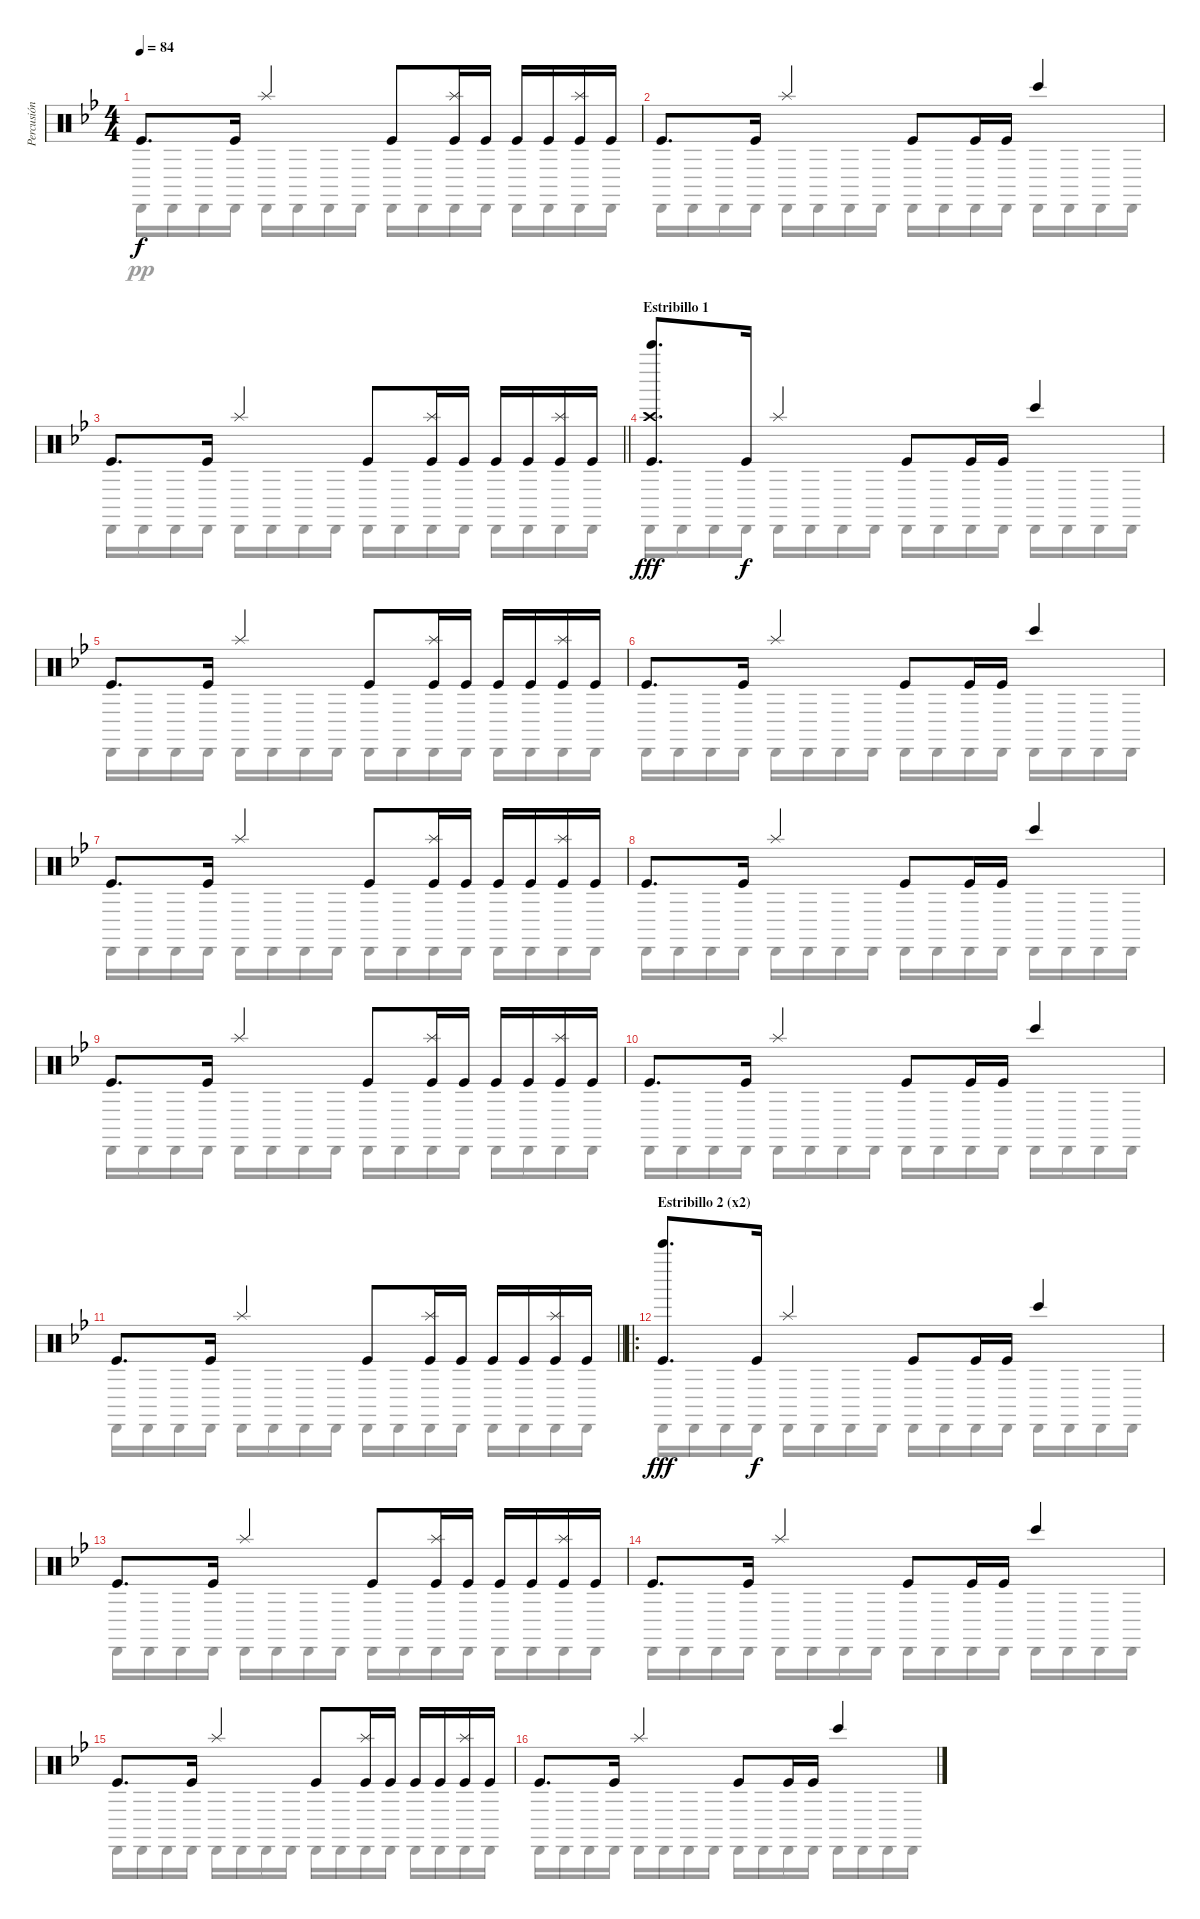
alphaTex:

\track ("Percusión" "Percusión") {instrument percussion}
\staff {score}
\articulation defaults
\voice
\ts (4 4)
\tempo 84
\clef neutral
\ks bb "Kick (hit)".8{d dy f} "Kick (hit)".16 "Splash (hit)".4 "Kick (hit)".8
("Splash (hit)" "Kick (hit)").16 "Kick (hit)".16 "Kick (hit)".16 "Kick (hit)".16 ("Splash (hit)" "Kick (hit)").16 "Kick (hit)".16 |
"Kick (hit)".8{d} "Kick (hit)".16 "Splash (hit)".4 "Kick (hit)".8 "Kick (hit)".16 "Kick (hit)".16 "Bongo High (hit)".4 |
\barLineRight lightlight "Kick (hit)".8{d} "Kick (hit)".16 "Splash (hit)".4 "Kick (hit)".8
("Splash (hit)" "Kick (hit)").16 "Kick (hit)".16 "Kick (hit)".16 "Kick (hit)".16 ("Splash (hit)" "Kick (hit)").16 "Kick (hit)".16 |
\section ("" "Estribillo 1")
("Bell Tree (hit)" "Crash high (hit)" "Kick (hit)").8{d dy fff} "Kick (hit)".16{dy f} "Splash (hit)".4 "Kick (hit)".8 "Kick (hit)".16 "Kick (hit)".16 "Bongo High (hit)".4 |
"Kick (hit)".8{d} "Kick (hit)".16 "Splash (hit)".4 "Kick (hit)".8 ("Splash (hit)" "Kick (hit)").16 "Kick (hit)".16 "Kick (hit)".16 "Kick (hit)".16 ("Splash (hit)" "Kick (hit)").16 "Kick (hit)".16 |
"Kick (hit)".8{d} "Kick (hit)".16 "Splash (hit)".4 "Kick (hit)".8 "Kick (hit)".16 "Kick (hit)".16 "Bongo High (hit)".4 |
"Kick (hit)".8{d} "Kick (hit)".16 "Splash (hit)".4 "Kick (hit)".8 ("Splash (hit)" "Kick (hit)").16 "Kick (hit)".16 "Kick (hit)".16 "Kick (hit)".16 ("Splash (hit)" "Kick (hit)").16 "Kick (hit)".16 |
"Kick (hit)".8{d} "Kick (hit)".16 "Splash (hit)".4 "Kick (hit)".8 "Kick (hit)".16 "Kick (hit)".16 "Bongo High (hit)".4 |
"Kick (hit)".8{d} "Kick (hit)".16 "Splash (hit)".4 "Kick (hit)".8 ("Splash (hit)" "Kick (hit)").16 "Kick (hit)".16 "Kick (hit)".16 "Kick (hit)".16 ("Splash (hit)" "Kick (hit)").16 "Kick (hit)".16 |
"Kick (hit)".8{d} "Kick (hit)".16 "Splash (hit)".4 "Kick (hit)".8 "Kick (hit)".16 "Kick (hit)".16 "Bongo High (hit)".4 |
\barLineRight lightlight "Kick (hit)".8{d} "Kick (hit)".16 "Splash (hit)".4 "Kick (hit)".8
("Splash (hit)" "Kick (hit)").16 "Kick (hit)".16 "Kick (hit)".16 "Kick (hit)".16 ("Splash (hit)" "Kick (hit)").16 "Kick (hit)".16 |
\ro
\section ("" "Estribillo 2 (x2)")
("Bell Tree (hit)" "Kick (hit)").8{d dy fff} "Kick (hit)".16{dy f} "Splash (hit)".4 "Kick (hit)".8 "Kick (hit)".16 "Kick (hit)".16 "Bongo High (hit)".4 |
"Kick (hit)".8{d} "Kick (hit)".16 "Splash (hit)".4 "Kick (hit)".8 ("Splash (hit)" "Kick (hit)").16 "Kick (hit)".16 "Kick (hit)".16 "Kick (hit)".16 ("Splash (hit)" "Kick (hit)").16 "Kick (hit)".16 |
"Kick (hit)".8{d} "Kick (hit)".16 "Splash (hit)".4 "Kick (hit)".8 "Kick (hit)".16 "Kick (hit)".16 "Bongo High (hit)".4 |
"Kick (hit)".8{d} "Kick (hit)".16 "Splash (hit)".4 "Kick (hit)".8 ("Splash (hit)" "Kick (hit)").16 "Kick (hit)".16 "Kick (hit)".16 "Kick (hit)".16 ("Splash (hit)" "Kick (hit)").16 "Kick (hit)".16 |
"Kick (hit)".8{d} "Kick (hit)".16 "Splash (hit)".4 "Kick (hit)".8 "Kick (hit)".16 "Kick (hit)".16 "Bongo High (hit)".4
\voice
\clef neutral
\ottava regular
\simile none
\ks bb "Cabasa (hit)".16{dy pp} "Cabasa (hit)".16 "Cabasa (hit)".16 "Cabasa (hit)".16 "Cabasa (hit)".16 "Cabasa (hit)".16 "Cabasa (hit)".16 "Cabasa (hit)".16 "Cabasa (hit)".16 "Cabasa (hit)".16 "Cabasa (hit)".16 "Cabasa (hit)".16 "Cabasa (hit)".16 "Cabasa (hit)".16 "Cabasa (hit)".16 "Cabasa (hit)".16
|
"Cabasa (hit)".16 "Cabasa (hit)".16 "Cabasa (hit)".16 "Cabasa (hit)".16 "Cabasa (hit)".16 "Cabasa (hit)".16 "Cabasa (hit)".16 "Cabasa (hit)".16 "Cabasa (hit)".16 "Cabasa (hit)".16 "Cabasa (hit)".16 "Cabasa (hit)".16 "Cabasa (hit)".16 "Cabasa (hit)".16 "Cabasa (hit)".16 "Cabasa (hit)".16 |
\barLineRight lightlight "Cabasa (hit)".16 "Cabasa (hit)".16 "Cabasa (hit)".16 "Cabasa (hit)".16 "Cabasa (hit)".16 "Cabasa (hit)".16 "Cabasa (hit)".16 "Cabasa (hit)".16 "Cabasa (hit)".16 "Cabasa (hit)".16 "Cabasa (hit)".16 "Cabasa (hit)".16 "Cabasa (hit)".16 "Cabasa (hit)".16 "Cabasa (hit)".16 "Cabasa (hit)".16
|
"Cabasa (hit)".16 "Cabasa (hit)".16 "Cabasa (hit)".16 "Cabasa (hit)".16 "Cabasa (hit)".16 "Cabasa (hit)".16 "Cabasa (hit)".16 "Cabasa (hit)".16 "Cabasa (hit)".16 "Cabasa (hit)".16 "Cabasa (hit)".16 "Cabasa (hit)".16 "Cabasa (hit)".16 "Cabasa (hit)".16 "Cabasa (hit)".16 "Cabasa (hit)".16 |
"Cabasa (hit)".16 "Cabasa (hit)".16 "Cabasa (hit)".16 "Cabasa (hit)".16 "Cabasa (hit)".16 "Cabasa (hit)".16 "Cabasa (hit)".16 "Cabasa (hit)".16 "Cabasa (hit)".16 "Cabasa (hit)".16 "Cabasa (hit)".16 "Cabasa (hit)".16 "Cabasa (hit)".16 "Cabasa (hit)".16 "Cabasa (hit)".16 "Cabasa (hit)".16 |
"Cabasa (hit)".16 "Cabasa (hit)".16 "Cabasa (hit)".16 "Cabasa (hit)".16 "Cabasa (hit)".16 "Cabasa (hit)".16 "Cabasa (hit)".16 "Cabasa (hit)".16 "Cabasa (hit)".16 "Cabasa (hit)".16 "Cabasa (hit)".16 "Cabasa (hit)".16 "Cabasa (hit)".16 "Cabasa (hit)".16 "Cabasa (hit)".16 "Cabasa (hit)".16 |
"Cabasa (hit)".16 "Cabasa (hit)".16 "Cabasa (hit)".16 "Cabasa (hit)".16 "Cabasa (hit)".16 "Cabasa (hit)".16 "Cabasa (hit)".16 "Cabasa (hit)".16 "Cabasa (hit)".16 "Cabasa (hit)".16 "Cabasa (hit)".16 "Cabasa (hit)".16 "Cabasa (hit)".16 "Cabasa (hit)".16 "Cabasa (hit)".16 "Cabasa (hit)".16 |
"Cabasa (hit)".16 "Cabasa (hit)".16 "Cabasa (hit)".16 "Cabasa (hit)".16 "Cabasa (hit)".16 "Cabasa (hit)".16 "Cabasa (hit)".16 "Cabasa (hit)".16 "Cabasa (hit)".16 "Cabasa (hit)".16 "Cabasa (hit)".16 "Cabasa (hit)".16 "Cabasa (hit)".16 "Cabasa (hit)".16 "Cabasa (hit)".16 "Cabasa (hit)".16 |
"Cabasa (hit)".16 "Cabasa (hit)".16 "Cabasa (hit)".16 "Cabasa (hit)".16 "Cabasa (hit)".16 "Cabasa (hit)".16 "Cabasa (hit)".16 "Cabasa (hit)".16 "Cabasa (hit)".16 "Cabasa (hit)".16 "Cabasa (hit)".16 "Cabasa (hit)".16 "Cabasa (hit)".16 "Cabasa (hit)".16 "Cabasa (hit)".16 "Cabasa (hit)".16 |
"Cabasa (hit)".16 "Cabasa (hit)".16 "Cabasa (hit)".16 "Cabasa (hit)".16 "Cabasa (hit)".16 "Cabasa (hit)".16 "Cabasa (hit)".16 "Cabasa (hit)".16 "Cabasa (hit)".16 "Cabasa (hit)".16 "Cabasa (hit)".16 "Cabasa (hit)".16 "Cabasa (hit)".16 "Cabasa (hit)".16 "Cabasa (hit)".16 "Cabasa (hit)".16 |
\barLineRight lightlight "Cabasa (hit)".16 "Cabasa (hit)".16 "Cabasa (hit)".16 "Cabasa (hit)".16 "Cabasa (hit)".16 "Cabasa (hit)".16 "Cabasa (hit)".16 "Cabasa (hit)".16 "Cabasa (hit)".16 "Cabasa (hit)".16 "Cabasa (hit)".16 "Cabasa (hit)".16 "Cabasa (hit)".16 "Cabasa (hit)".16 "Cabasa (hit)".16 "Cabasa (hit)".16
|
"Cabasa (hit)".16 "Cabasa (hit)".16 "Cabasa (hit)".16 "Cabasa (hit)".16 "Cabasa (hit)".16 "Cabasa (hit)".16 "Cabasa (hit)".16 "Cabasa (hit)".16 "Cabasa (hit)".16 "Cabasa (hit)".16 "Cabasa (hit)".16 "Cabasa (hit)".16 "Cabasa (hit)".16 "Cabasa (hit)".16 "Cabasa (hit)".16 "Cabasa (hit)".16 |
"Cabasa (hit)".16 "Cabasa (hit)".16 "Cabasa (hit)".16 "Cabasa (hit)".16 "Cabasa (hit)".16 "Cabasa (hit)".16 "Cabasa (hit)".16 "Cabasa (hit)".16 "Cabasa (hit)".16 "Cabasa (hit)".16 "Cabasa (hit)".16 "Cabasa (hit)".16 "Cabasa (hit)".16 "Cabasa (hit)".16 "Cabasa (hit)".16 "Cabasa (hit)".16 |
"Cabasa (hit)".16 "Cabasa (hit)".16 "Cabasa (hit)".16 "Cabasa (hit)".16 "Cabasa (hit)".16 "Cabasa (hit)".16 "Cabasa (hit)".16 "Cabasa (hit)".16 "Cabasa (hit)".16 "Cabasa (hit)".16 "Cabasa (hit)".16 "Cabasa (hit)".16 "Cabasa (hit)".16 "Cabasa (hit)".16 "Cabasa (hit)".16 "Cabasa (hit)".16 |
"Cabasa (hit)".16 "Cabasa (hit)".16 "Cabasa (hit)".16 "Cabasa (hit)".16 "Cabasa (hit)".16 "Cabasa (hit)".16 "Cabasa (hit)".16 "Cabasa (hit)".16 "Cabasa (hit)".16 "Cabasa (hit)".16 "Cabasa (hit)".16 "Cabasa (hit)".16 "Cabasa (hit)".16 "Cabasa (hit)".16 "Cabasa (hit)".16 "Cabasa (hit)".16 |
"Cabasa (hit)".16 "Cabasa (hit)".16 "Cabasa (hit)".16 "Cabasa (hit)".16 "Cabasa (hit)".16 "Cabasa (hit)".16 "Cabasa (hit)".16 "Cabasa (hit)".16 "Cabasa (hit)".16 "Cabasa (hit)".16 "Cabasa (hit)".16 "Cabasa (hit)".16 "Cabasa (hit)".16 "Cabasa (hit)".16 "Cabasa (hit)".16 "Cabasa (hit)".16
